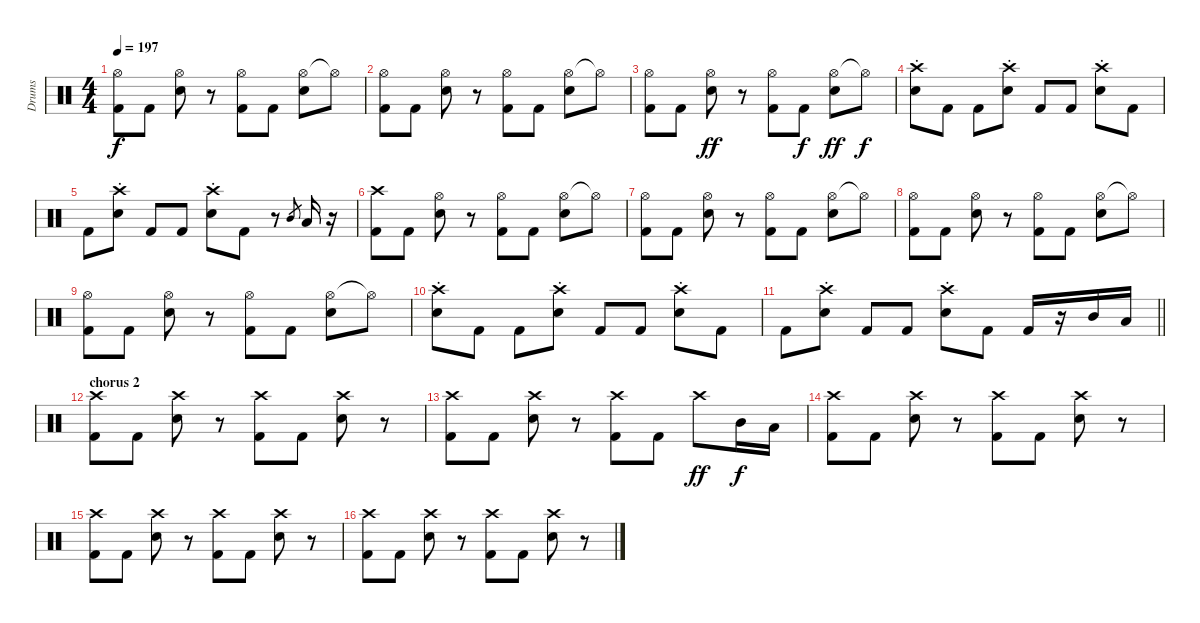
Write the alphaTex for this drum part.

\track ("Drums" "Drums") {instrument percussion}
\staff {score}
\articulation defaults
\ts (4 4)
\tempo 197
\clef neutral
\ks c
("Hi-Hat (open)" "Kick (hit) 2").8{dy f} "Kick (hit) 2".8 ("Hi-Hat (open)" "Snare (hit) 2").8 r.8 ("Hi-Hat (open)" "Kick (hit) 2").8 "Kick (hit) 2".8 ("Hi-Hat (open)" "Snare (hit) 2").8 "Hi-Hat (open)"{t}.8 |
("Hi-Hat (open)" "Kick (hit) 2").8 "Kick (hit) 2".8 ("Hi-Hat (open)" "Snare (hit) 2").8 r.8 ("Hi-Hat (open)" "Kick (hit) 2").8 "Kick (hit) 2".8 ("Hi-Hat (open)" "Snare (hit) 2").8 "Hi-Hat (open)"{t}.8 |
("Hi-Hat (open)" "Kick (hit) 2").8 "Kick (hit) 2".8 ("Hi-Hat (open)" "Snare (hit) 2").8{dy ff} r.8 ("Hi-Hat (open)" "Kick (hit) 2").8 "Kick (hit) 2".8{dy f} ("Hi-Hat (open)" "Snare (hit) 2").8{dy ff} "Hi-Hat (open)"{t}.8{dy f} |
("Crash high (hit)"{st} "Snare (hit) 2"{st}).8 "Kick (hit) 2".8 "Kick (hit) 2".8 ("Crash high (hit)"{st} "Snare (hit) 2"{st}).8 "Kick (hit) 2".8 "Kick (hit) 2".8 ("Crash high (hit)"{st} "Snare (hit) 2"{st}).8 "Kick (hit) 2".8 |
"Kick (hit) 2".8 ("Crash high (hit)"{st} "Snare (hit) 2"{st}).8 "Kick (hit) 2".8 "Kick (hit) 2".8 ("Crash high (hit)"{st} "Snare (hit) 2"{st}).8 "Kick (hit) 2".8 r.8 "Mid Tom (hit)".8{gr} "Low Tom (hit)".16 r.16 |
("Crash high (hit)" "Kick (hit) 2").8 "Kick (hit) 2".8 ("Hi-Hat (open)" "Snare (hit) 2").8 r.8 ("Hi-Hat (open)" "Kick (hit) 2").8 "Kick (hit) 2".8 ("Hi-Hat (open)" "Snare (hit) 2").8 "Hi-Hat (open)"{t}.8 |
("Hi-Hat (open)" "Kick (hit) 2").8 "Kick (hit) 2".8 ("Hi-Hat (open)" "Snare (hit) 2").8 r.8 ("Hi-Hat (open)" "Kick (hit) 2").8 "Kick (hit) 2".8 ("Hi-Hat (open)" "Snare (hit) 2").8 "Hi-Hat (open)"{t}.8 |
("Hi-Hat (open)" "Kick (hit) 2").8 "Kick (hit) 2".8 ("Hi-Hat (open)" "Snare (hit) 2").8 r.8 ("Hi-Hat (open)" "Kick (hit) 2").8 "Kick (hit) 2".8 ("Hi-Hat (open)" "Snare (hit) 2").8 "Hi-Hat (open)"{t}.8 |
("Hi-Hat (open)" "Kick (hit) 2").8 "Kick (hit) 2".8 ("Hi-Hat (open)" "Snare (hit) 2").8 r.8 ("Hi-Hat (open)" "Kick (hit) 2").8 "Kick (hit) 2".8 ("Hi-Hat (open)" "Snare (hit) 2").8 "Hi-Hat (open)"{t}.8 |
("Crash high (hit)"{st} "Snare (hit) 2"{st}).8 "Kick (hit) 2".8 "Kick (hit) 2".8 ("Crash high (hit)"{st} "Snare (hit) 2"{st}).8 "Kick (hit) 2".8 "Kick (hit) 2".8 ("Crash high (hit)"{st} "Snare (hit) 2"{st}).8 "Kick (hit) 2".8 |
\barLineRight lightlight "Kick (hit) 2".8
("Crash high (hit)"{st} "Snare (hit) 2"{st}).8 "Kick (hit) 2".8 "Kick (hit) 2".8 ("Crash high (hit)"{st} "Snare (hit) 2"{st}).8 "Kick (hit) 2".8 "Kick (hit) 2".16 r.16 "Mid Tom (hit)".16 "Low Tom (hit)".16 |
\section ("" "chorus 2")
("Crash high (hit)" "Kick (hit) 2").8 "Kick (hit) 2".8 ("Crash high (hit)" "Snare (hit) 2").8 r.8 ("Crash high (hit)" "Kick (hit) 2").8 "Kick (hit) 2".8 ("Crash high (hit)" "Snare (hit) 2").8 r.8 |
("Crash high (hit)" "Kick (hit) 2").8 "Kick (hit) 2".8 ("Crash high (hit)" "Snare (hit) 2").8 r.8 ("Crash high (hit)" "Kick (hit) 2").8 "Kick (hit) 2".8 "Crash high (hit)".8{dy ff} "Mid Tom (hit)".16{dy f} "Low Tom (hit)".16 |
("Crash high (hit)" "Kick (hit) 2").8 "Kick (hit) 2".8 ("Crash high (hit)" "Snare (hit) 2").8 r.8 ("Crash high (hit)" "Kick (hit) 2").8 "Kick (hit) 2".8 ("Crash high (hit)" "Snare (hit) 2").8 r.8 |
("Crash high (hit)" "Kick (hit) 2").8 "Kick (hit) 2".8 ("Crash high (hit)" "Snare (hit) 2").8 r.8 ("Crash high (hit)" "Kick (hit) 2").8 "Kick (hit) 2".8 ("Crash high (hit)" "Snare (hit) 2").8 r.8 |
("Crash high (hit)" "Kick (hit) 2").8 "Kick (hit) 2".8 ("Crash high (hit)" "Snare (hit) 2").8 r.8 ("Crash high (hit)" "Kick (hit) 2").8 "Kick (hit) 2".8 ("Crash high (hit)" "Snare (hit) 2").8 r.8
